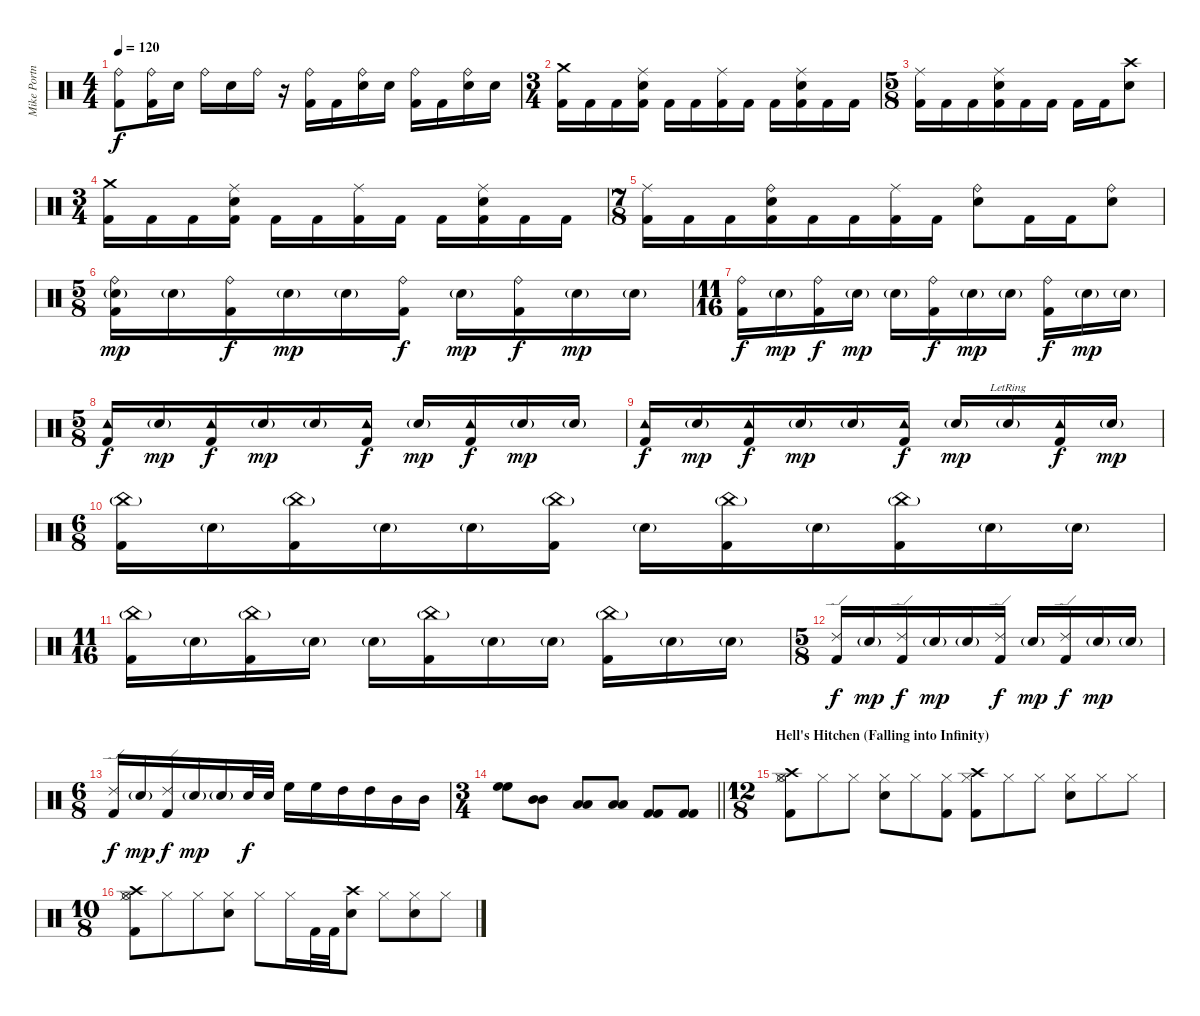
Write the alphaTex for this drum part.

\track ("Mike Portnoy Drums" "Mike Portn") {instrument percussion}
\staff {score}
\articulation defaults
\ts (4 4)
\tempo 120
\clef neutral
\ks c
("Ride (bell)" "Kick (hit) 2").8{dy f} ("Ride (bell)" "Kick (hit) 2").16 "Snare (hit) 2".16 "Ride (bell)".16 "Snare (hit) 2".16 "Ride (bell)".16 r.16 ("Ride (bell)" "Kick (hit) 2").16 "Kick (hit) 2".16 ("Ride (bell)" "Snare (hit) 2").16 "Snare (hit) 2".16 ("Ride (bell)" "Kick (hit) 2").16 "Kick (hit) 2".16 ("Ride (bell)" "Snare (hit) 2").16 "Snare (hit) 2".16 |
\ts (3 4)
("Crash medium (hit)" "Kick (hit) 2").16 "Kick (hit) 2".16 "Kick (hit) 2".16 ("Ride (middle)" "Snare (hit) 2" "Kick (hit) 2").16 "Kick (hit) 2".16 "Kick (hit) 2".16 ("Ride (middle)" "Kick (hit) 2").16 "Kick (hit) 2".16 "Kick (hit) 2".16 ("Ride (middle)" "Snare (hit) 2" "Kick (hit) 2").16 "Kick (hit) 2".16 "Kick (hit) 2".16 |
\ts (5 8)
("Ride (middle)" "Kick (hit) 2").16 "Kick (hit) 2".16 "Kick (hit) 2".16 ("Ride (middle)" "Snare (hit) 2" "Kick (hit) 2").16 "Kick (hit) 2".16 "Kick (hit) 2".16 "Kick (hit) 2".16 "Kick (hit) 2".16 ("Crash high (hit)" "Snare (hit) 2").8 |
\ts (3 4)
("Crash medium (hit)" "Kick (hit) 2").16 "Kick (hit) 2".16 "Kick (hit) 2".16 ("Ride (middle)" "Snare (hit) 2" "Kick (hit) 2").16 "Kick (hit) 2".16 "Kick (hit) 2".16 ("Ride (middle)" "Kick (hit) 2").16 "Kick (hit) 2".16 "Kick (hit) 2".16 ("Ride (middle)" "Snare (hit) 2" "Kick (hit) 2").16 "Kick (hit) 2".16 "Kick (hit) 2".16 |
\ts (7 8)
("Ride (middle)" "Kick (hit) 2").16 "Kick (hit) 2".16 "Kick (hit) 2".16 ("Ride (bell)" "Snare (hit) 2" "Kick (hit) 2").16 "Kick (hit) 2".16 "Kick (hit) 2".16 ("Ride (middle)" "Kick (hit) 2").16 "Kick (hit) 2".16 ("Ride (bell)" "Snare (hit) 2").8 "Kick (hit) 2".16 "Kick (hit) 2".16 ("Ride (bell)" "Snare (hit) 2").8 |
\ts (5 8)
("Ride (bell)" "Snare (hit) 2"{g} "Kick (hit) 2").16{dy mp} "Snare (hit) 2"{g}.16 ("Ride (bell)" "Kick (hit) 2").16{dy f} "Snare (hit) 2"{g}.16{dy mp} "Snare (hit) 2"{g}.16 ("Ride (bell)" "Kick (hit) 2").16{dy f} "Snare (hit) 2"{g}.16{dy mp} ("Ride (bell)" "Kick (hit) 2").16{dy f} "Snare (hit) 2"{g}.16{dy mp} "Snare (hit) 2"{g}.16 |
\ts (11 16)
("Ride (bell)" "Kick (hit) 2").16{dy f} "Snare (hit) 2"{g}.16{dy mp} ("Ride (bell)" "Kick (hit) 2").16{dy f} "Snare (hit) 2"{g}.16{dy mp} "Snare (hit) 2"{g}.16 ("Ride (bell)" "Kick (hit) 2").16{dy f} "Snare (hit) 2"{g}.16{dy mp} "Snare (hit) 2"{g}.16 ("Ride (bell)" "Kick (hit) 2").16{dy f} "Snare (hit) 2"{g}.16{dy mp} "Snare (hit) 2"{g}.16 |
\ts (5 8)
("Tambourine (hit)" "Kick (hit) 2").16{dy f} "Snare (hit) 2"{g}.16{dy mp} ("Tambourine (hit)" "Kick (hit) 2").16{dy f} "Snare (hit) 2"{g}.16{dy mp} "Snare (hit) 2"{g}.16 ("Tambourine (hit)" "Kick (hit) 2").16{dy f} "Snare (hit) 2"{g}.16{dy mp} ("Tambourine (hit)" "Kick (hit) 2").16{dy f} "Snare (hit) 2"{g}.16{dy mp} "Snare (hit) 2"{g}.16 |
("Tambourine (hit)" "Kick (hit) 2").16{dy f} "Snare (hit) 2"{g}.16{dy mp} ("Tambourine (hit)" "Kick (hit) 2").16{dy f} "Snare (hit) 2"{g}.16{dy mp} "Snare (hit) 2"{g}.16 ("Tambourine (hit)" "Kick (hit) 2").16{dy f} "Snare (hit) 2"{g}.16{dy mp} "Snare (hit) 2"{g lr}.16 ("Tambourine (hit)" "Kick (hit) 2").16{dy f} "Snare (hit) 2"{g}.16{dy mp} |
\ts (6 8)
("China (hit)"{g} "Kick (hit) 2").16 "Snare (hit) 2"{g}.16 ("China (hit)"{g} "Kick (hit) 2").16 "Snare (hit) 2"{g}.16 "Snare (hit) 2"{g}.16 ("China (hit)"{g} "Kick (hit) 2").16 "Snare (hit) 2"{g}.16 ("China (hit)"{g} "Kick (hit) 2").16 "Snare (hit) 2"{g}.16 ("China (hit)"{g} "Kick (hit) 2").16 "Snare (hit) 2"{g}.16 "Snare (hit) 2"{g}.16 |
\ts (11 16)
("China (hit)"{g} "Kick (hit) 2").16 "Snare (hit) 2"{g}.16 ("China (hit)"{g} "Kick (hit) 2").16 "Snare (hit) 2"{g}.16 "Snare (hit) 2"{g}.16 ("China (hit)"{g} "Kick (hit) 2").16 "Snare (hit) 2"{g}.16 "Snare (hit) 2"{g}.16 ("China (hit)"{g} "Kick (hit) 2").16 "Snare (hit) 2"{g}.16 "Snare (hit) 2"{g}.16 |
\ts (5 8)
("Ride (edge) 2" "Kick (hit) 2").16{dy f} "Snare (hit) 2"{g}.16{dy mp} ("Ride (edge) 2" "Kick (hit) 2").16{dy f} "Snare (hit) 2"{g}.16{dy mp} "Snare (hit) 2"{g}.16 ("Ride (edge) 2" "Kick (hit) 2").16{dy f} "Snare (hit) 2"{g}.16{dy mp} ("Ride (edge) 2" "Kick (hit) 2").16{dy f} "Snare (hit) 2"{g}.16{dy mp} "Snare (hit) 2"{g}.16 |
\ts (6 8)
("Ride (edge) 2" "Kick (hit) 2").16{dy f} "Snare (hit) 2"{g}.16{dy mp} ("Ride (edge) 2" "Kick (hit) 2").16{dy f} "Snare (hit) 2"{g}.16{dy mp} "Snare (hit) 2"{g}.16 "Snare (hit) 2".32{dy f} "Snare (hit) 2".32 "High Floor Tom (hit)".16 "High Floor Tom (hit)".16 "High Tom (hit)".16 "High Tom (hit)".16 "Mid Tom (hit)".16 "Mid Tom (hit)".16 |
\ts (3 4)
\barLineRight lightlight
("High Floor Tom (hit)" "High Floor Tom (hit)").8 ("Mid Tom (hit)" "Mid Tom (hit)").8 ("Low Tom (hit)" "Low Tom (hit)").8 ("Low Floor Tom (hit)" "Low Floor Tom (hit)").8 ("Kick (hit) 2" "Kick (hit) 2").8 ("Kick (hit) 2" "Kick (hit) 2").8 |
\ts (12 8)
\section ("" "Hell's Hitchen (Falling into Infinity)")
("Hi-Hat (open)" "Kick (hit) 2" "Crash high (hit)" "Hi-Hat (closed)").8 "Hi-Hat (closed)".8 "Hi-Hat (closed)".8 ("Snare (hit) 2" "Hi-Hat (closed)").8 "Hi-Hat (closed)".8 ("Kick (hit) 2" "Hi-Hat (closed)").8 ("Crash high (hit)" "Kick (hit) 2" "Hi-Hat (closed)").8 "Hi-Hat (closed)".8 "Hi-Hat (closed)".8 ("Snare (hit) 2" "Hi-Hat (closed)").8 "Hi-Hat (closed)".8 "Hi-Hat (closed)".8 |
\ts (10 8)
("Crash high (hit)" "Hi-Hat (open)" "Kick (hit) 2" "Hi-Hat (closed)").8 "Hi-Hat (closed)".8 "Hi-Hat (closed)".8 ("Snare (hit) 2" "Hi-Hat (closed)").8 "Hi-Hat (closed)".8 "Hi-Hat (closed)".16 "Kick (hit) 2".32 "Kick (hit) 2".32 ("Crash high (hit)" "Snare (hit) 2").8 "Hi-Hat (closed)".8 ("Snare (hit) 2" "Hi-Hat (closed)").8 "Hi-Hat (closed)".8
